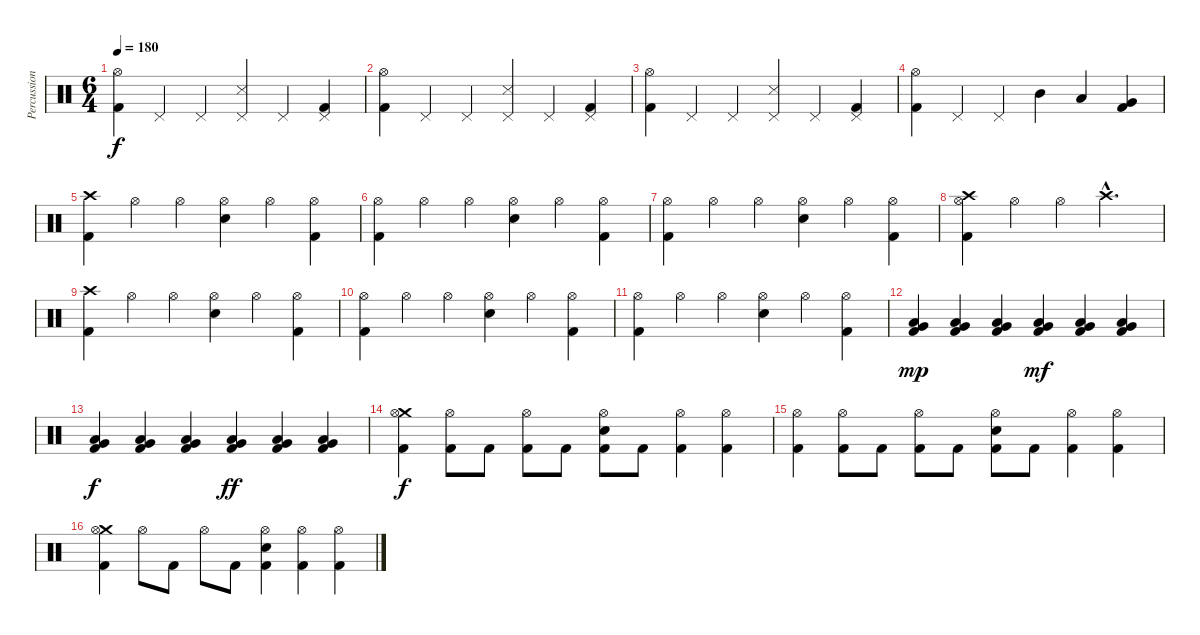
\track ("Percussion" "Percussion") {instrument percussion}
\staff {score}
\articulation defaults
\ts (6 4)
\tempo 180
\clef neutral
\ks c
("Hi-Hat (open)" "Kick (hit) 2").4{dy f} "Pedal Hi-Hat (hit)".4 "Pedal Hi-Hat (hit)".4 ("Pedal Hi-Hat (hit)" "Snare (side stick) 3").4 "Pedal Hi-Hat (hit)".4 ("Pedal Hi-Hat (hit)" "Kick (hit) 2").4 |
("Hi-Hat (open)" "Kick (hit) 2").4 "Pedal Hi-Hat (hit)".4 "Pedal Hi-Hat (hit)".4 ("Pedal Hi-Hat (hit)" "Snare (side stick) 3").4 "Pedal Hi-Hat (hit)".4 ("Pedal Hi-Hat (hit)" "Kick (hit) 2").4 |
("Hi-Hat (open)" "Kick (hit) 2").4 "Pedal Hi-Hat (hit)".4 "Pedal Hi-Hat (hit)".4 ("Pedal Hi-Hat (hit)" "Snare (side stick) 3").4 "Pedal Hi-Hat (hit)".4 ("Pedal Hi-Hat (hit)" "Kick (hit) 2").4 |
("Hi-Hat (open)" "Kick (hit) 2").4 "Pedal Hi-Hat (hit)".4 "Pedal Hi-Hat (hit)".4 "Mid Tom (hit)".4 "Low Tom (hit)".4 ("Very Low Tom (hit)" "Kick (hit) 2").4 |
("Crash high (hit)" "Kick (hit) 2").4 "Hi-Hat (open)".4 "Hi-Hat (open)".4 ("Hi-Hat (open)" "Electric Snare (hit)").4 "Hi-Hat (open)".4 ("Hi-Hat (open)" "Kick (hit) 2").4 |
("Hi-Hat (open)" "Kick (hit) 2").4 "Hi-Hat (open)".4 "Hi-Hat (open)".4 ("Hi-Hat (open)" "Electric Snare (hit)").4 "Hi-Hat (open)".4 ("Hi-Hat (open)" "Kick (hit) 2").4 |
("Hi-Hat (open)" "Kick (hit) 2").4 "Hi-Hat (open)".4 "Hi-Hat (open)".4 ("Hi-Hat (open)" "Electric Snare (hit)").4 "Hi-Hat (open)".4 ("Hi-Hat (open)" "Kick (hit) 2").4 |
("Crash high (hit)" "Hi-Hat (open)" "Kick (hit) 2").4 "Hi-Hat (open)".4 "Hi-Hat (open)".4 "Crash high (hit)"{hac}.2{d} |
("Crash high (hit)" "Kick (hit) 2").4 "Hi-Hat (open)".4 "Hi-Hat (open)".4 ("Hi-Hat (open)" "Electric Snare (hit)").4 "Hi-Hat (open)".4 ("Hi-Hat (open)" "Kick (hit) 2").4 |
("Hi-Hat (open)" "Kick (hit) 2").4 "Hi-Hat (open)".4 "Hi-Hat (open)".4 ("Hi-Hat (open)" "Electric Snare (hit)").4 "Hi-Hat (open)".4 ("Hi-Hat (open)" "Kick (hit) 2").4 |
("Hi-Hat (open)" "Kick (hit) 2").4 "Hi-Hat (open)".4 "Hi-Hat (open)".4 ("Hi-Hat (open)" "Electric Snare (hit)").4 "Hi-Hat (open)".4 ("Hi-Hat (open)" "Kick (hit) 2").4 |
("Low Floor Tom (hit)" "Very Low Tom (hit)" "Kick (hit) 2").4{dy mp} ("Low Floor Tom (hit)" "Very Low Tom (hit)" "Kick (hit) 2").4 ("Low Floor Tom (hit)" "Very Low Tom (hit)" "Kick (hit) 2").4 ("Low Floor Tom (hit)" "Very Low Tom (hit)" "Kick (hit) 2").4{dy mf} ("Low Floor Tom (hit)" "Very Low Tom (hit)" "Kick (hit) 2").4 ("Low Floor Tom (hit)" "Very Low Tom (hit)" "Kick (hit) 2").4 |
("Low Floor Tom (hit)" "Very Low Tom (hit)" "Kick (hit) 2").4{dy f} ("Low Floor Tom (hit)" "Very Low Tom (hit)" "Kick (hit) 2").4 ("Low Floor Tom (hit)" "Very Low Tom (hit)" "Kick (hit) 2").4 ("Low Floor Tom (hit)" "Very Low Tom (hit)" "Kick (hit) 2").4{dy ff} ("Low Floor Tom (hit)" "Very Low Tom (hit)" "Kick (hit) 2").4 ("Low Floor Tom (hit)" "Very Low Tom (hit)" "Kick (hit) 2").4 |
("Crash medium (hit)" "Hi-Hat (open)" "Kick (hit) 2").4{dy f} ("Hi-Hat (open)" "Kick (hit) 2").8 "Kick (hit) 2".8 ("Hi-Hat (open)" "Kick (hit) 2").8 "Kick (hit) 2".8 ("Hi-Hat (open)" "Electric Snare (hit)" "Kick (hit) 2").8 "Kick (hit) 2".8 ("Hi-Hat (open)" "Kick (hit) 2").4 ("Hi-Hat (open)" "Kick (hit) 2").4 |
("Hi-Hat (open)" "Kick (hit) 2").4 ("Hi-Hat (open)" "Kick (hit) 2").8 "Kick (hit) 2".8 ("Hi-Hat (open)" "Kick (hit) 2").8 "Kick (hit) 2".8 ("Hi-Hat (open)" "Electric Snare (hit)" "Kick (hit) 2").8 "Kick (hit) 2".8 ("Hi-Hat (open)" "Kick (hit) 2").4 ("Hi-Hat (open)" "Kick (hit) 2").4 |
("Crash medium (hit)" "Hi-Hat (open)" "Kick (hit) 2").4 "Hi-Hat (open)".8 "Kick (hit) 2".8 "Hi-Hat (open)".8 "Kick (hit) 2".8 ("Hi-Hat (open)" "Electric Snare (hit)" "Kick (hit) 2").4 ("Hi-Hat (open)" "Kick (hit) 2").4 ("Hi-Hat (open)" "Kick (hit) 2").4
